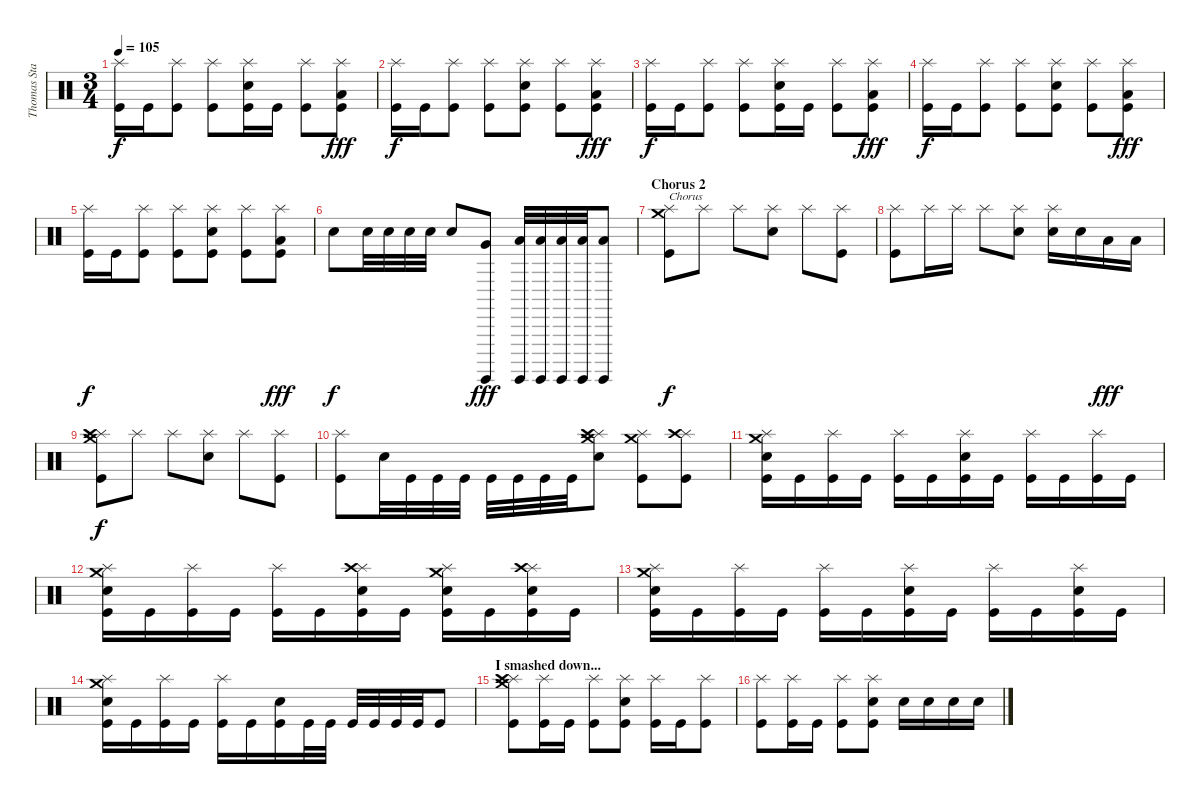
\track ("Thomas Stauch" "Thomas Sta") {instrument percussion}
\staff {score}
\articulation defaults
\ts (3 4)
\tempo 105
\clef neutral
\ks c
("Splash (hit)" "Kick (hit)").16{dy f} "Kick (hit)".16 ("Splash (hit)" "Kick (hit)").8 ("Splash (hit)" "Kick (hit)").8 ("Splash (hit)" "Electric Snare (hit)" "Kick (hit)").16 "Kick (hit)".16 ("Splash (hit)" "Kick (hit)").8 ("Splash (hit)" "Low Floor Tom (hit)" "Kick (hit)").8{dy fff} |
("Splash (hit)" "Kick (hit)").16{dy f} "Kick (hit)".16 ("Splash (hit)" "Kick (hit)").8 ("Splash (hit)" "Kick (hit)").8 ("Splash (hit)" "Electric Snare (hit)" "Kick (hit)").8 ("Splash (hit)" "Kick (hit)").8 ("Splash (hit)" "Low Floor Tom (hit)" "Kick (hit)").8{dy fff} |
("Splash (hit)" "Kick (hit)").16{dy f} "Kick (hit)".16 ("Splash (hit)" "Kick (hit)").8 ("Splash (hit)" "Kick (hit)").8 ("Splash (hit)" "Electric Snare (hit)" "Kick (hit)").16 "Kick (hit)".16 ("Splash (hit)" "Kick (hit)").8 ("Splash (hit)" "Low Floor Tom (hit)" "Kick (hit)").8{dy fff} |
("Splash (hit)" "Kick (hit)").16{dy f} "Kick (hit)".16 ("Splash (hit)" "Kick (hit)").8 ("Splash (hit)" "Kick (hit)").8 ("Splash (hit)" "Electric Snare (hit)" "Kick (hit)").8 ("Splash (hit)" "Kick (hit)").8 ("Splash (hit)" "Low Floor Tom (hit)" "Kick (hit)").8{dy fff} |
("Splash (hit)" "Kick (hit)").16{dy f} "Kick (hit)".16 ("Splash (hit)" "Kick (hit)").8 ("Splash (hit)" "Kick (hit)").8 ("Splash (hit)" "Electric Snare (hit)" "Kick (hit)").8 ("Splash (hit)" "Kick (hit)").8 ("Splash (hit)" "Low Floor Tom (hit)" "Kick (hit)").8{dy fff} |
"Electric Snare (hit)".8{dy f} "Electric Snare (hit)".32 "Electric Snare (hit)".32 "Electric Snare (hit)".32 "Electric Snare (hit)".32 "Electric Snare (hit)".8 ("Surdo (hit)" "Very Low Tom (hit)").8{dy fff} ("Surdo (hit)" "Low Floor Tom (hit)").32 ("Surdo (hit)" "Low Floor Tom (hit)").32 ("Surdo (hit)" "Low Floor Tom (hit)").32 ("Surdo (hit)" "Low Floor Tom (hit)").32 ("Surdo (hit)" "Low Floor Tom (hit)").8 |
\section ("" "Chorus 2")
("Crash medium (hit)" "Splash (hit)" "Kick (hit)").8{txt "Chorus" dy f} "Splash (hit)".8 "Splash (hit)".8 ("Splash (hit)" "Electric Snare (hit)").8 "Splash (hit)".8 ("Splash (hit)" "Kick (hit)").8 |
("Splash (hit)" "Kick (hit)").8 "Splash (hit)".16 "Splash (hit)".16 "Splash (hit)".8 ("Splash (hit)" "Electric Snare (hit)").8 ("Splash (hit)" "Electric Snare (hit)").16 "Electric Snare (hit)".16 "Low Floor Tom (hit)".16{dy fff} "Low Floor Tom (hit)".16 |
("Crash medium (hit)" "Splash (hit)" "Crash high (hit)" "Kick (hit)").8{dy f} "Splash (hit)".8 "Splash (hit)".8 ("Splash (hit)" "Electric Snare (hit)").8 "Splash (hit)".8 ("Splash (hit)" "Kick (hit)").8 |
("Splash (hit)" "Kick (hit)").8 "Electric Snare (hit)".32 "Kick (hit)".32 "Kick (hit)".32 "Kick (hit)".32 "Kick (hit)".32 "Kick (hit)".32 "Kick (hit)".32 "Kick (hit)".32 ("Crash medium (hit)" "Splash (hit)" "Crash high (hit)" "Electric Snare (hit)").8 ("Crash medium (hit)" "Splash (hit)" "Kick (hit)").8 ("Splash (hit)" "Crash high (hit)" "Kick (hit)").8 |
("Crash medium (hit)" "Splash (hit)" "Electric Snare (hit)" "Kick (hit)").16 "Kick (hit)".16 ("Splash (hit)" "Kick (hit)").16 "Kick (hit)".16 ("Splash (hit)" "Kick (hit)").16 "Kick (hit)".16 ("Splash (hit)" "Electric Snare (hit)" "Kick (hit)").16 "Kick (hit)".16 ("Splash (hit)" "Kick (hit)").16 "Kick (hit)".16 ("Splash (hit)" "Kick (hit)").16 "Kick (hit)".16 |
("Crash medium (hit)" "Splash (hit)" "Electric Snare (hit)" "Kick (hit)").16 "Kick (hit)".16 ("Splash (hit)" "Kick (hit)").16 "Kick (hit)".16 ("Splash (hit)" "Kick (hit)").16 "Kick (hit)".16 ("Splash (hit)" "Crash high (hit)" "Electric Snare (hit)" "Kick (hit)").16 "Kick (hit)".16 ("Crash medium (hit)" "Splash (hit)" "Electric Snare (hit)" "Kick (hit)").16 "Kick (hit)".16 ("Splash (hit)" "Crash high (hit)" "Electric Snare (hit)" "Kick (hit)").16 "Kick (hit)".16 |
("Crash medium (hit)" "Splash (hit)" "Electric Snare (hit)" "Kick (hit)").16 "Kick (hit)".16 ("Splash (hit)" "Kick (hit)").16 "Kick (hit)".16 ("Splash (hit)" "Kick (hit)").16 "Kick (hit)".16 ("Splash (hit)" "Electric Snare (hit)" "Kick (hit)").16 "Kick (hit)".16 ("Splash (hit)" "Kick (hit)").16 "Kick (hit)".16 ("Splash (hit)" "Electric Snare (hit)" "Kick (hit)").16 "Kick (hit)".16 |
("Crash medium (hit)" "Splash (hit)" "Electric Snare (hit)" "Kick (hit)").16 "Kick (hit)".16 ("Splash (hit)" "Kick (hit)").16 "Kick (hit)".16 ("Splash (hit)" "Kick (hit)").16 "Kick (hit)".16 ("Electric Snare (hit)" "Kick (hit)").16 "Kick (hit)".32 "Kick (hit)".32 "Kick (hit)".32 "Kick (hit)".32 "Kick (hit)".32 "Kick (hit)".32 "Kick (hit)".8 |
\section ("" "I smashed down...")
("Crash medium (hit)" "Splash (hit)" "Crash high (hit)" "Kick (hit)").8 ("Splash (hit)" "Kick (hit)").16 "Kick (hit)".16 ("Splash (hit)" "Kick (hit)").8 ("Splash (hit)" "Electric Snare (hit)" "Kick (hit)").8 ("Splash (hit)" "Kick (hit)").16 "Kick (hit)".16 ("Splash (hit)" "Kick (hit)").8 |
("Splash (hit)" "Kick (hit)").8 ("Splash (hit)" "Kick (hit)").16 "Kick (hit)".16 ("Splash (hit)" "Kick (hit)").8 ("Splash (hit)" "Electric Snare (hit)" "Kick (hit)").8 "Electric Snare (hit)".16 "Electric Snare (hit)".16 "Electric Snare (hit)".16 "Electric Snare (hit)".16
